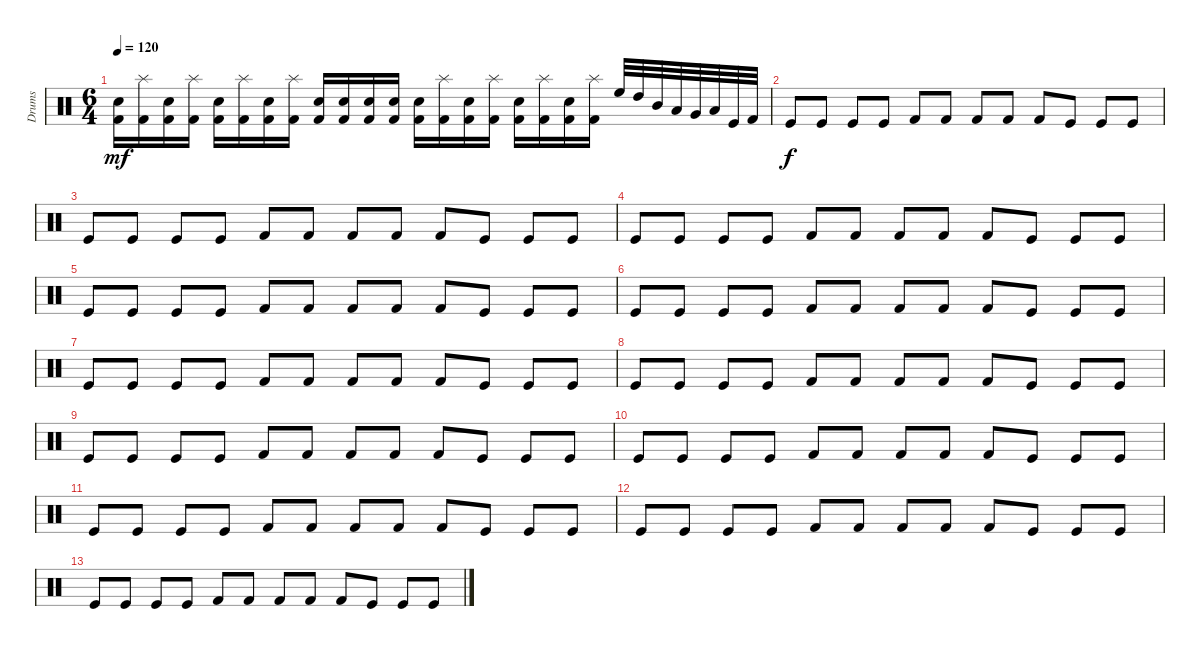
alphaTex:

\track ("Drums" "Drums") {instrument percussion}
\staff {score}
\articulation defaults
\ts (6 4)
\tempo 120
\clef neutral
\ks c
("Electric Snare (hit)" "Kick (hit) 2").16{dy mf} ("Splash (hit)" "Kick (hit) 2").16 ("Electric Snare (hit)" "Kick (hit) 2").16 ("Splash (hit)" "Kick (hit) 2").16 ("Electric Snare (hit)" "Kick (hit) 2").16 ("Splash (hit)" "Kick (hit) 2").16 ("Electric Snare (hit)" "Kick (hit) 2").16 ("Splash (hit)" "Kick (hit) 2").16 ("Snare (hit) 2" "Kick (hit) 2").16 ("Snare (hit) 2" "Kick (hit) 2").16 ("Snare (hit) 2" "Kick (hit) 2").16 ("Snare (hit) 2" "Kick (hit) 2").16 ("Electric Snare (hit)" "Kick (hit) 2").16 ("Splash (hit)" "Kick (hit) 2").16 ("Electric Snare (hit)" "Kick (hit) 2").16 ("Splash (hit)" "Kick (hit) 2").16 ("Electric Snare (hit)" "Kick (hit) 2").16 ("Splash (hit)" "Kick (hit) 2").16 ("Electric Snare (hit)" "Kick (hit) 2").16 ("Splash (hit)" "Kick (hit) 2").16 "High Floor Tom (hit)".32 "High Tom (hit)".32 "Mid Tom (hit)".32 "Low Tom (hit)".32 "Very Low Tom (hit)".32 "Low Floor Tom (hit)".32 "Kick (hit)".32 "Kick (hit) 2".32 |
"Kick (hit)".8{dy f} "Kick (hit)".8 "Kick (hit)".8 "Kick (hit)".8 "Kick (hit) 2".8 "Kick (hit) 2".8 "Kick (hit) 2".8 "Kick (hit) 2".8 "Kick (hit) 2".8 "Kick (hit)".8 "Kick (hit)".8 "Kick (hit)".8 |
"Kick (hit)".8 "Kick (hit)".8 "Kick (hit)".8 "Kick (hit)".8 "Kick (hit) 2".8 "Kick (hit) 2".8 "Kick (hit) 2".8 "Kick (hit) 2".8 "Kick (hit) 2".8 "Kick (hit)".8 "Kick (hit)".8 "Kick (hit)".8 |
"Kick (hit)".8 "Kick (hit)".8 "Kick (hit)".8 "Kick (hit)".8 "Kick (hit) 2".8 "Kick (hit) 2".8 "Kick (hit) 2".8 "Kick (hit) 2".8 "Kick (hit) 2".8 "Kick (hit)".8 "Kick (hit)".8 "Kick (hit)".8 |
"Kick (hit)".8 "Kick (hit)".8 "Kick (hit)".8 "Kick (hit)".8 "Kick (hit) 2".8 "Kick (hit) 2".8 "Kick (hit) 2".8 "Kick (hit) 2".8 "Kick (hit) 2".8 "Kick (hit)".8 "Kick (hit)".8 "Kick (hit)".8 |
"Kick (hit)".8 "Kick (hit)".8 "Kick (hit)".8 "Kick (hit)".8 "Kick (hit) 2".8 "Kick (hit) 2".8 "Kick (hit) 2".8 "Kick (hit) 2".8 "Kick (hit) 2".8 "Kick (hit)".8 "Kick (hit)".8 "Kick (hit)".8 |
"Kick (hit)".8 "Kick (hit)".8 "Kick (hit)".8 "Kick (hit)".8 "Kick (hit) 2".8 "Kick (hit) 2".8 "Kick (hit) 2".8 "Kick (hit) 2".8 "Kick (hit) 2".8 "Kick (hit)".8 "Kick (hit)".8 "Kick (hit)".8 |
"Kick (hit)".8 "Kick (hit)".8 "Kick (hit)".8 "Kick (hit)".8 "Kick (hit) 2".8 "Kick (hit) 2".8 "Kick (hit) 2".8 "Kick (hit) 2".8 "Kick (hit) 2".8 "Kick (hit)".8 "Kick (hit)".8 "Kick (hit)".8 |
"Kick (hit)".8 "Kick (hit)".8 "Kick (hit)".8 "Kick (hit)".8 "Kick (hit) 2".8 "Kick (hit) 2".8 "Kick (hit) 2".8 "Kick (hit) 2".8 "Kick (hit) 2".8 "Kick (hit)".8 "Kick (hit)".8 "Kick (hit)".8 |
"Kick (hit)".8 "Kick (hit)".8 "Kick (hit)".8 "Kick (hit)".8 "Kick (hit) 2".8 "Kick (hit) 2".8 "Kick (hit) 2".8 "Kick (hit) 2".8 "Kick (hit) 2".8 "Kick (hit)".8 "Kick (hit)".8 "Kick (hit)".8 |
"Kick (hit)".8 "Kick (hit)".8 "Kick (hit)".8 "Kick (hit)".8 "Kick (hit) 2".8 "Kick (hit) 2".8 "Kick (hit) 2".8 "Kick (hit) 2".8 "Kick (hit) 2".8 "Kick (hit)".8 "Kick (hit)".8 "Kick (hit)".8 |
"Kick (hit)".8 "Kick (hit)".8 "Kick (hit)".8 "Kick (hit)".8 "Kick (hit) 2".8 "Kick (hit) 2".8 "Kick (hit) 2".8 "Kick (hit) 2".8 "Kick (hit) 2".8 "Kick (hit)".8 "Kick (hit)".8 "Kick (hit)".8 |
"Kick (hit)".8 "Kick (hit)".8 "Kick (hit)".8 "Kick (hit)".8 "Kick (hit) 2".8 "Kick (hit) 2".8 "Kick (hit) 2".8 "Kick (hit) 2".8 "Kick (hit) 2".8 "Kick (hit)".8 "Kick (hit)".8 "Kick (hit)".8
